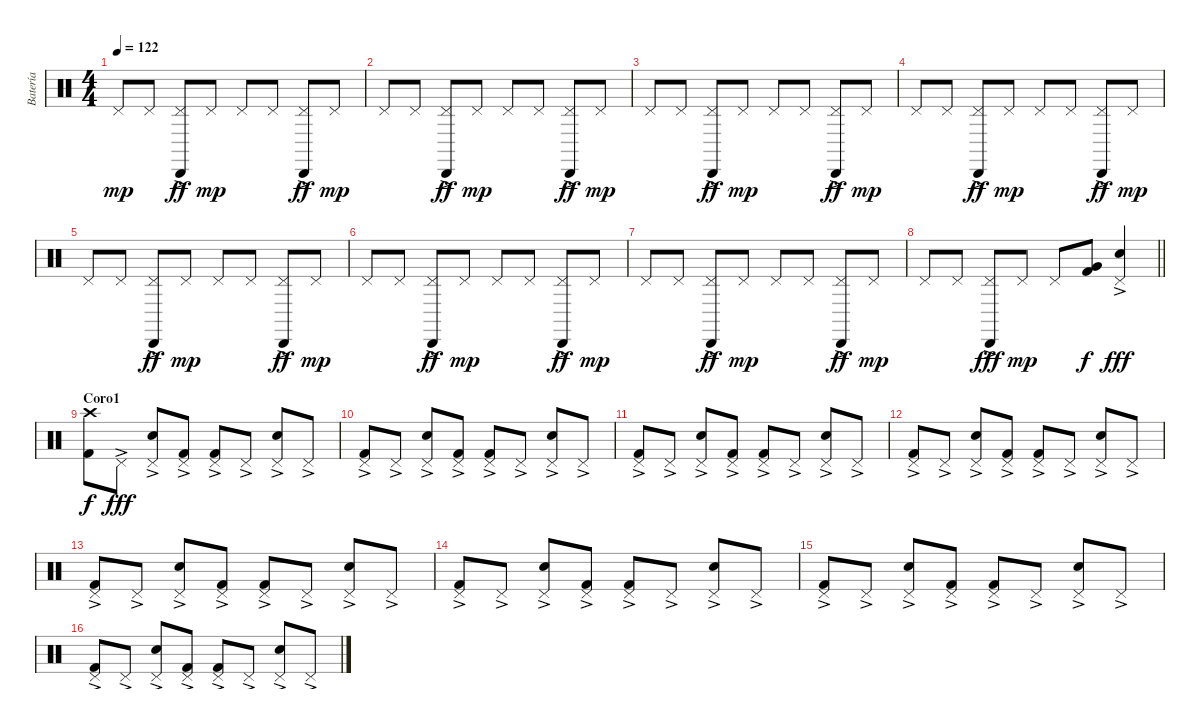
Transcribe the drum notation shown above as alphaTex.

\track ("Batería" "Batería") {instrument percussion}
\staff {score}
\articulation defaults
\ts (4 4)
\tempo 122
\clef neutral
\ks c "Pedal Hi-Hat (hit)".8{dy mp} "Pedal Hi-Hat (hit)".8
("Pedal Hi-Hat (hit)"{ac} "Cabasa (hit)").8{dy ff} "Pedal Hi-Hat (hit)".8{dy mp} "Pedal Hi-Hat (hit)".8 "Pedal Hi-Hat (hit)".8 ("Pedal Hi-Hat (hit)"{ac} "Cabasa (hit)").8{dy ff} "Pedal Hi-Hat (hit)".8{dy mp} |
"Pedal Hi-Hat (hit)".8 "Pedal Hi-Hat (hit)".8 ("Pedal Hi-Hat (hit)"{ac} "Cabasa (hit)").8{dy ff} "Pedal Hi-Hat (hit)".8{dy mp} "Pedal Hi-Hat (hit)".8 "Pedal Hi-Hat (hit)".8 ("Pedal Hi-Hat (hit)"{ac} "Cabasa (hit)").8{dy ff} "Pedal Hi-Hat (hit)".8{dy mp} |
"Pedal Hi-Hat (hit)".8 "Pedal Hi-Hat (hit)".8 ("Pedal Hi-Hat (hit)"{ac} "Cabasa (hit)").8{dy ff} "Pedal Hi-Hat (hit)".8{dy mp} "Pedal Hi-Hat (hit)".8 "Pedal Hi-Hat (hit)".8 ("Pedal Hi-Hat (hit)"{ac} "Cabasa (hit)").8{dy ff} "Pedal Hi-Hat (hit)".8{dy mp} |
"Pedal Hi-Hat (hit)".8 "Pedal Hi-Hat (hit)".8 ("Pedal Hi-Hat (hit)"{ac} "Cabasa (hit)").8{dy ff} "Pedal Hi-Hat (hit)".8{dy mp} "Pedal Hi-Hat (hit)".8 "Pedal Hi-Hat (hit)".8 ("Pedal Hi-Hat (hit)"{ac} "Cabasa (hit)").8{dy ff} "Pedal Hi-Hat (hit)".8{dy mp} |
"Pedal Hi-Hat (hit)".8 "Pedal Hi-Hat (hit)".8 ("Pedal Hi-Hat (hit)"{ac} "Cabasa (hit)").8{dy ff} "Pedal Hi-Hat (hit)".8{dy mp} "Pedal Hi-Hat (hit)".8 "Pedal Hi-Hat (hit)".8 ("Pedal Hi-Hat (hit)"{ac} "Cabasa (hit)").8{dy ff} "Pedal Hi-Hat (hit)".8{dy mp} |
"Pedal Hi-Hat (hit)".8 "Pedal Hi-Hat (hit)".8 ("Pedal Hi-Hat (hit)"{ac} "Cabasa (hit)").8{dy ff} "Pedal Hi-Hat (hit)".8{dy mp} "Pedal Hi-Hat (hit)".8 "Pedal Hi-Hat (hit)".8 ("Pedal Hi-Hat (hit)"{ac} "Cabasa (hit)").8{dy ff} "Pedal Hi-Hat (hit)".8{dy mp} |
"Pedal Hi-Hat (hit)".8 "Pedal Hi-Hat (hit)".8 ("Pedal Hi-Hat (hit)"{ac} "Cabasa (hit)").8{dy ff} "Pedal Hi-Hat (hit)".8{dy mp} "Pedal Hi-Hat (hit)".8 "Pedal Hi-Hat (hit)".8 ("Pedal Hi-Hat (hit)"{ac} "Cabasa (hit)").8{dy ff} "Pedal Hi-Hat (hit)".8{dy mp} |
\barLineRight lightlight "Pedal Hi-Hat (hit)".8 "Pedal Hi-Hat (hit)".8
("Pedal Hi-Hat (hit)"{ac} "Cabasa (hit)").8{dy fff} "Pedal Hi-Hat (hit)".8{dy mp} "Pedal Hi-Hat (hit)".8 ("Very Low Tom (hit)" "Kick (hit) 2").8{dy f} ("Pedal Hi-Hat (hit)" "Electric Snare (hit)"{ac}).4{dy fff} |
\section ("" "Coro1")
("Crash high (hit)" "Kick (hit) 2").8{dy f} "Pedal Hi-Hat (hit)"{ac}.8{dy fff} ("Pedal Hi-Hat (hit)"{ac} "Electric Snare (hit)").8 ("Pedal Hi-Hat (hit)"{ac} "Kick (hit) 2").8 ("Pedal Hi-Hat (hit)"{ac} "Kick (hit) 2").8 "Pedal Hi-Hat (hit)"{ac}.8 ("Pedal Hi-Hat (hit)"{ac} "Electric Snare (hit)").8 "Pedal Hi-Hat (hit)"{ac}.8 |
("Pedal Hi-Hat (hit)"{ac} "Kick (hit) 2").8 "Pedal Hi-Hat (hit)"{ac}.8 ("Pedal Hi-Hat (hit)"{ac} "Electric Snare (hit)").8 ("Pedal Hi-Hat (hit)"{ac} "Kick (hit) 2").8 ("Pedal Hi-Hat (hit)"{ac} "Kick (hit) 2").8 "Pedal Hi-Hat (hit)"{ac}.8 ("Pedal Hi-Hat (hit)"{ac} "Electric Snare (hit)").8 "Pedal Hi-Hat (hit)"{ac}.8 |
("Pedal Hi-Hat (hit)"{ac} "Kick (hit) 2").8 "Pedal Hi-Hat (hit)"{ac}.8 ("Pedal Hi-Hat (hit)"{ac} "Electric Snare (hit)").8 ("Pedal Hi-Hat (hit)"{ac} "Kick (hit) 2").8 ("Pedal Hi-Hat (hit)"{ac} "Kick (hit) 2").8 "Pedal Hi-Hat (hit)"{ac}.8 ("Pedal Hi-Hat (hit)"{ac} "Electric Snare (hit)").8 "Pedal Hi-Hat (hit)"{ac}.8 |
("Pedal Hi-Hat (hit)"{ac} "Kick (hit) 2").8 "Pedal Hi-Hat (hit)"{ac}.8 ("Pedal Hi-Hat (hit)"{ac} "Electric Snare (hit)").8 ("Pedal Hi-Hat (hit)"{ac} "Kick (hit) 2").8 ("Pedal Hi-Hat (hit)"{ac} "Kick (hit) 2").8 "Pedal Hi-Hat (hit)"{ac}.8 ("Pedal Hi-Hat (hit)"{ac} "Electric Snare (hit)").8 "Pedal Hi-Hat (hit)"{ac}.8 |
("Pedal Hi-Hat (hit)"{ac} "Kick (hit) 2").8 "Pedal Hi-Hat (hit)"{ac}.8 ("Pedal Hi-Hat (hit)"{ac} "Electric Snare (hit)").8 ("Pedal Hi-Hat (hit)"{ac} "Kick (hit) 2").8 ("Pedal Hi-Hat (hit)"{ac} "Kick (hit) 2").8 "Pedal Hi-Hat (hit)"{ac}.8 ("Pedal Hi-Hat (hit)"{ac} "Electric Snare (hit)").8 "Pedal Hi-Hat (hit)"{ac}.8 |
("Pedal Hi-Hat (hit)"{ac} "Kick (hit) 2").8 "Pedal Hi-Hat (hit)"{ac}.8 ("Pedal Hi-Hat (hit)"{ac} "Electric Snare (hit)").8 ("Pedal Hi-Hat (hit)"{ac} "Kick (hit) 2").8 ("Pedal Hi-Hat (hit)"{ac} "Kick (hit) 2").8 "Pedal Hi-Hat (hit)"{ac}.8 ("Pedal Hi-Hat (hit)"{ac} "Electric Snare (hit)").8 "Pedal Hi-Hat (hit)"{ac}.8 |
("Pedal Hi-Hat (hit)"{ac} "Kick (hit) 2").8 "Pedal Hi-Hat (hit)"{ac}.8 ("Pedal Hi-Hat (hit)"{ac} "Electric Snare (hit)").8 ("Pedal Hi-Hat (hit)"{ac} "Kick (hit) 2").8 ("Pedal Hi-Hat (hit)"{ac} "Kick (hit) 2").8 "Pedal Hi-Hat (hit)"{ac}.8 ("Pedal Hi-Hat (hit)"{ac} "Electric Snare (hit)").8 "Pedal Hi-Hat (hit)"{ac}.8 |
("Pedal Hi-Hat (hit)"{ac} "Kick (hit) 2").8 "Pedal Hi-Hat (hit)"{ac}.8 ("Pedal Hi-Hat (hit)"{ac} "Electric Snare (hit)").8 ("Pedal Hi-Hat (hit)"{ac} "Kick (hit) 2").8 ("Pedal Hi-Hat (hit)"{ac} "Kick (hit) 2").8 "Pedal Hi-Hat (hit)"{ac}.8 ("Pedal Hi-Hat (hit)"{ac} "Electric Snare (hit)").8 "Pedal Hi-Hat (hit)"{ac}.8
